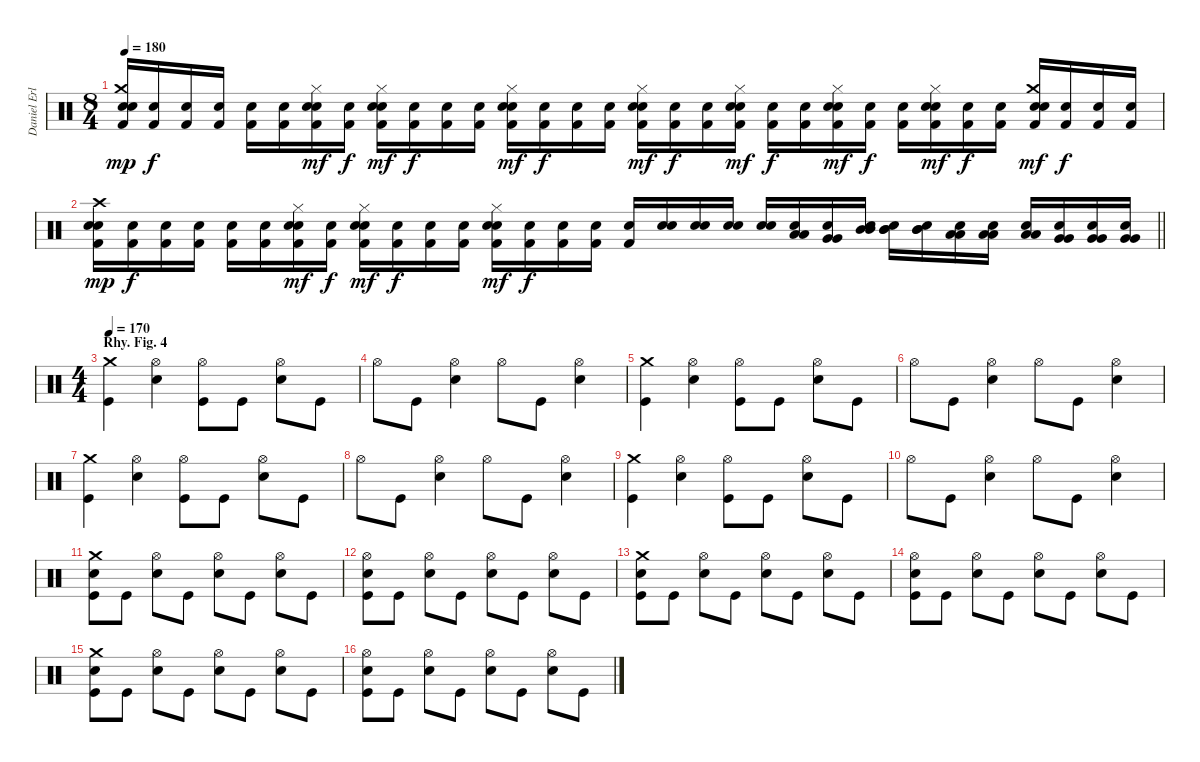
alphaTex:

\track ("Daniel Erlandson" "Daniel Erl") {instrument percussion}
\staff {score}
\articulation defaults
\ts (8 4)
\tempo 180
\clef neutral
\ks c
("Snare (hit)"{x} "Crash medium (hit)" "Electric Snare (hit)" "Kick (hit) 2").16{dy mp} ("Snare (hit)"{x} "Kick (hit) 2").16{dy f} ("Snare (hit)"{x} "Kick (hit) 2").16 ("Snare (hit)"{x} "Kick (hit) 2").16 ("Snare (hit)"{x} "Kick (hit) 2").16 ("Snare (hit)"{x} "Kick (hit) 2").16 ("Snare (hit)"{x} "Hi-Hat (closed)" "Electric Snare (hit)" "Kick (hit) 2").16{dy mf} ("Snare (hit)"{x} "Kick (hit) 2").16{dy f} ("Snare (hit)"{x} "Hi-Hat (closed)" "Electric Snare (hit)" "Kick (hit) 2").16{dy mf} ("Snare (hit)"{x} "Kick (hit) 2").16{dy f} ("Snare (hit)"{x} "Kick (hit) 2").16 ("Snare (hit)"{x} "Kick (hit) 2").16 ("Snare (hit)"{x} "Hi-Hat (closed)" "Electric Snare (hit)" "Kick (hit) 2").16{dy mf} ("Snare (hit)"{x} "Kick (hit) 2").16{dy f} ("Snare (hit)"{x} "Kick (hit) 2").16 ("Snare (hit)"{x} "Kick (hit) 2").16 ("Snare (hit)"{x} "Hi-Hat (closed)" "Electric Snare (hit)" "Kick (hit) 2").16{dy mf} ("Snare (hit)"{x} "Kick (hit) 2").16{dy f} ("Snare (hit)"{x} "Kick (hit) 2").16 ("Snare (hit)"{x} "Hi-Hat (closed)" "Electric Snare (hit)" "Kick (hit) 2").16{dy mf} ("Snare (hit)"{x} "Kick (hit) 2").16{dy f} ("Snare (hit)"{x} "Kick (hit) 2").16 ("Snare (hit)"{x} "Hi-Hat (closed)" "Electric Snare (hit)" "Kick (hit) 2").16{dy mf} ("Snare (hit)"{x} "Kick (hit) 2").16{dy f} ("Snare (hit)"{x} "Kick (hit) 2").16 ("Snare (hit)"{x} "Hi-Hat (closed)" "Electric Snare (hit)" "Kick (hit) 2").16{dy mf} ("Snare (hit)"{x} "Kick (hit) 2").16{dy f} ("Snare (hit)"{x} "Kick (hit) 2").16 ("Snare (hit)"{x} "Crash medium (hit)" "Electric Snare (hit)" "Kick (hit) 2").16{dy mf} ("Snare (hit)"{x} "Kick (hit) 2").16{dy f} ("Snare (hit)"{x} "Kick (hit) 2").16 ("Snare (hit)"{x} "Kick (hit) 2").16 |
\barLineRight lightlight
("Snare (hit)"{x} "Crash high (hit)" "Electric Snare (hit)" "Kick (hit) 2").16{dy mp} ("Snare (hit)"{x} "Kick (hit) 2").16{dy f} ("Snare (hit)"{x} "Kick (hit) 2").16 ("Snare (hit)"{x} "Kick (hit) 2").16 ("Snare (hit)"{x} "Kick (hit) 2").16 ("Snare (hit)"{x} "Kick (hit) 2").16 ("Snare (hit)"{x} "Hi-Hat (closed)" "Electric Snare (hit)" "Kick (hit) 2").16{dy mf} ("Snare (hit)"{x} "Kick (hit) 2").16{dy f} ("Snare (hit)"{x} "Hi-Hat (closed)" "Electric Snare (hit)" "Kick (hit) 2").16{dy mf} ("Snare (hit)"{x} "Kick (hit) 2").16{dy f} ("Snare (hit)"{x} "Kick (hit) 2").16 ("Snare (hit)"{x} "Kick (hit) 2").16 ("Snare (hit)"{x} "Hi-Hat (closed)" "Electric Snare (hit)" "Kick (hit) 2").16{dy mf} ("Snare (hit)"{x} "Kick (hit) 2").16{dy f} ("Snare (hit)"{x} "Kick (hit) 2").16 ("Snare (hit)"{x} "Kick (hit) 2").16 ("Snare (hit)"{x} "Kick (hit) 2").16 ("Snare (hit)"{x} "Electric Snare (hit)").16 ("Snare (hit)"{x} "Electric Snare (hit)").16 ("Snare (hit)"{x} "Electric Snare (hit)").16 ("Snare (hit)"{x} "Electric Snare (hit)").16 ("Snare (hit)"{x} "Low Tom (hit)" "Low Tom (hit)").16 ("Snare (hit)"{x} "Very Low Tom (hit)" "Very Low Tom (hit)").16 ("Snare (hit)"{x} "Mid Tom (hit)" "Mid Tom (hit)").16 ("Snare (hit)"{x} "Mid Tom (hit)" "Mid Tom (hit)").16 ("Snare (hit)"{x} "Mid Tom (hit)" "Mid Tom (hit)").16 ("Snare (hit)"{x} "Low Tom (hit)" "Low Tom (hit)").16 ("Snare (hit)"{x} "Low Tom (hit)" "Low Tom (hit)").16 ("Snare (hit)"{x} "Low Tom (hit)" "Low Tom (hit)").16 ("Snare (hit)"{x} "Very Low Tom (hit)" "Very Low Tom (hit)").16 ("Snare (hit)"{x} "Very Low Tom (hit)" "Very Low Tom (hit)").16 ("Snare (hit)"{x} "Very Low Tom (hit)" "Very Low Tom (hit)").16 |
\ts (4 4)
\section ("" "Rhy. Fig. 4")
\tempo 170
("Crash medium (hit)" "Kick (hit)").4 ("Hi-Hat (open)" "Electric Snare (hit)").4 ("Hi-Hat (open)" "Kick (hit)").8 "Kick (hit)".8 ("Hi-Hat (open)" "Electric Snare (hit)").8 "Kick (hit)".8 |
"Hi-Hat (open)".8 "Kick (hit)".8 ("Hi-Hat (open)" "Electric Snare (hit)").4 "Hi-Hat (open)".8 "Kick (hit)".8 ("Hi-Hat (open)" "Electric Snare (hit)").4 |
("Crash medium (hit)" "Kick (hit)").4 ("Hi-Hat (open)" "Electric Snare (hit)").4 ("Hi-Hat (open)" "Kick (hit)").8 "Kick (hit)".8 ("Hi-Hat (open)" "Electric Snare (hit)").8 "Kick (hit)".8 |
"Hi-Hat (open)".8 "Kick (hit)".8 ("Hi-Hat (open)" "Electric Snare (hit)").4 "Hi-Hat (open)".8 "Kick (hit)".8 ("Hi-Hat (open)" "Electric Snare (hit)").4 |
("Crash medium (hit)" "Kick (hit)").4 ("Hi-Hat (open)" "Electric Snare (hit)").4 ("Hi-Hat (open)" "Kick (hit)").8 "Kick (hit)".8 ("Hi-Hat (open)" "Electric Snare (hit)").8 "Kick (hit)".8 |
"Hi-Hat (open)".8 "Kick (hit)".8 ("Hi-Hat (open)" "Electric Snare (hit)").4 "Hi-Hat (open)".8 "Kick (hit)".8 ("Hi-Hat (open)" "Electric Snare (hit)").4 |
("Crash medium (hit)" "Kick (hit)").4 ("Hi-Hat (open)" "Electric Snare (hit)").4 ("Hi-Hat (open)" "Kick (hit)").8 "Kick (hit)".8 ("Hi-Hat (open)" "Electric Snare (hit)").8 "Kick (hit)".8 |
"Hi-Hat (open)".8 "Kick (hit)".8 ("Hi-Hat (open)" "Electric Snare (hit)").4 "Hi-Hat (open)".8 "Kick (hit)".8 ("Hi-Hat (open)" "Electric Snare (hit)").4 |
("Crash medium (hit)" "Electric Snare (hit)" "Kick (hit)").8 "Kick (hit)".8 ("Hi-Hat (open)" "Electric Snare (hit)").8 "Kick (hit)".8 ("Hi-Hat (open)" "Electric Snare (hit)").8 "Kick (hit)".8 ("Hi-Hat (open)" "Electric Snare (hit)").8 "Kick (hit)".8 |
("Hi-Hat (open)" "Electric Snare (hit)" "Kick (hit)").8 "Kick (hit)".8 ("Hi-Hat (open)" "Electric Snare (hit)").8 "Kick (hit)".8 ("Hi-Hat (open)" "Electric Snare (hit)").8 "Kick (hit)".8 ("Hi-Hat (open)" "Electric Snare (hit)").8 "Kick (hit)".8 |
("Crash medium (hit)" "Electric Snare (hit)" "Kick (hit)").8 "Kick (hit)".8 ("Hi-Hat (open)" "Electric Snare (hit)").8 "Kick (hit)".8 ("Hi-Hat (open)" "Electric Snare (hit)").8 "Kick (hit)".8 ("Hi-Hat (open)" "Electric Snare (hit)").8 "Kick (hit)".8 |
("Hi-Hat (open)" "Electric Snare (hit)" "Kick (hit)").8 "Kick (hit)".8 ("Hi-Hat (open)" "Electric Snare (hit)").8 "Kick (hit)".8 ("Hi-Hat (open)" "Electric Snare (hit)").8 "Kick (hit)".8 ("Hi-Hat (open)" "Electric Snare (hit)").8 "Kick (hit)".8 |
("Crash medium (hit)" "Electric Snare (hit)" "Kick (hit)").8 "Kick (hit)".8 ("Hi-Hat (open)" "Electric Snare (hit)").8 "Kick (hit)".8 ("Hi-Hat (open)" "Electric Snare (hit)").8 "Kick (hit)".8 ("Hi-Hat (open)" "Electric Snare (hit)").8 "Kick (hit)".8 |
("Hi-Hat (open)" "Electric Snare (hit)" "Kick (hit)").8 "Kick (hit)".8 ("Hi-Hat (open)" "Electric Snare (hit)").8 "Kick (hit)".8 ("Hi-Hat (open)" "Electric Snare (hit)").8 "Kick (hit)".8 ("Hi-Hat (open)" "Electric Snare (hit)").8 "Kick (hit)".8
